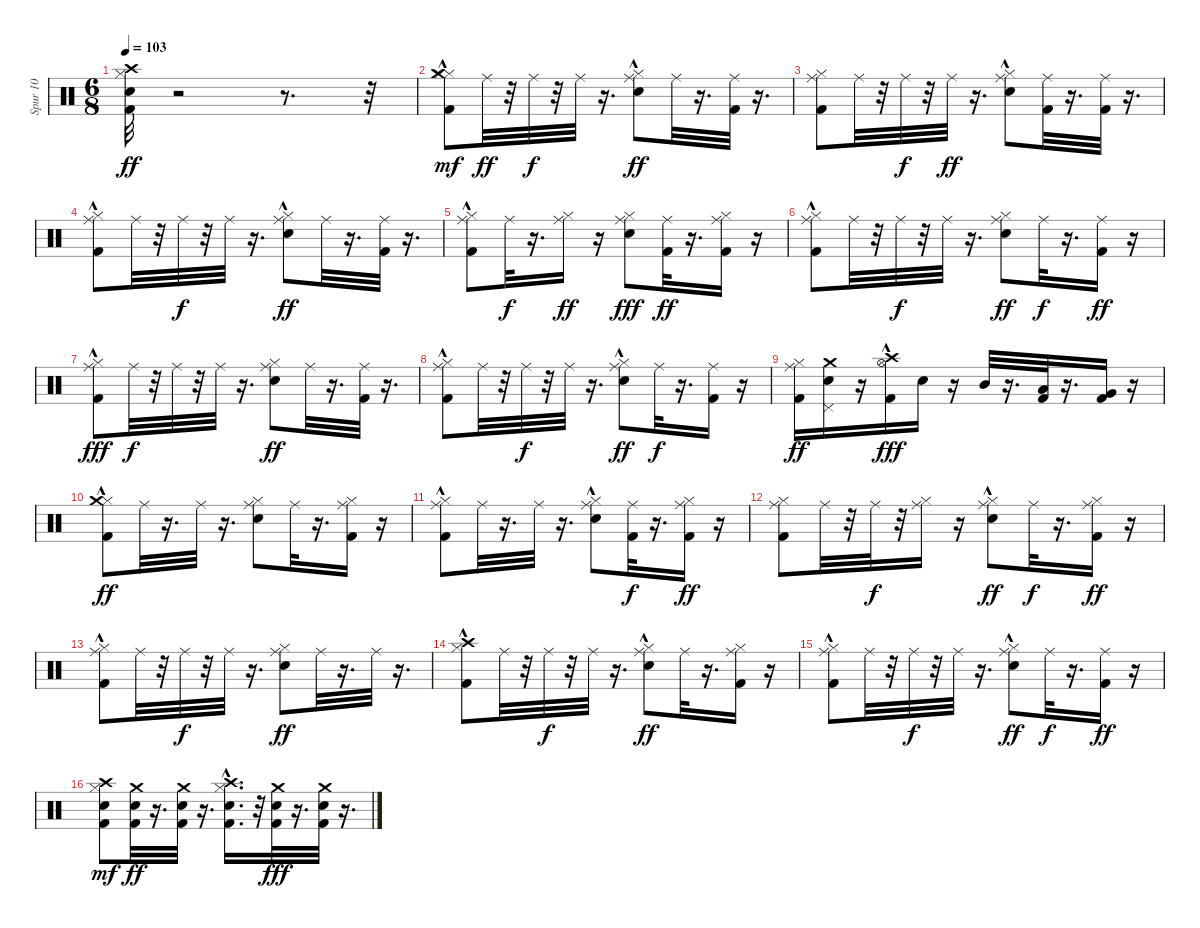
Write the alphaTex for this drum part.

\track ("Spur 10" "Spur 10") {instrument percussion}
\staff {score}
\articulation defaults
\ts (6 8)
\tempo 103
\clef neutral
\ks c
("Kick (hit) 2" "Snare (hit) 2" "Hi-Hat (closed)" "Crash high (hit)").32{dy ff} r.2 r.8{d} r.32 |
("Kick (hit) 2"{hac} "Hi-Hat (closed)" "Hi-Hat (closed)" "Crash medium (hit)").8{dy mf} "Ride (middle)".32{dy ff} r.32 "Ride (middle)".32{dy f} r.32 "Ride (middle)".32 r.16{d} ("Snare (hit) 2"{hac} "Hi-Hat (closed)" "Ride (middle)").8{dy ff} "Ride (middle)".32 r.16{d} ("Kick (hit) 2" "Ride (middle)").32 r.16{d} |
("Kick (hit) 2" "Hi-Hat (closed)" "Ride (middle)").8 "Ride (middle)".32 r.32 "Ride (middle)".32{dy f} r.32 "Ride (middle)".32{dy ff} r.16{d} ("Snare (hit) 2"{hac} "Hi-Hat (closed)" "Ride (middle)").8 ("Kick (hit) 2" "Ride (middle)").32 r.16{d} ("Kick (hit) 2" "Ride (middle)").32 r.16{d} |
("Kick (hit) 2"{hac} "Hi-Hat (closed)"{hac} "Ride (middle)").8 "Ride (middle)".32 r.32 "Ride (middle)".32{dy f} r.32 "Ride (middle)".32 r.16{d} ("Snare (hit) 2" "Hi-Hat (closed)"{hac} "Ride (middle)").8{dy ff} "Ride (middle)".32 r.16{d} ("Kick (hit) 2" "Ride (middle)").32 r.16{d} |
("Kick (hit) 2"{hac} "Hi-Hat (closed)" "Ride (middle)").8 "Ride (middle)".32{dy f} r.16{d} ("Hi-Hat (closed)" "Ride (middle)").16{dy ff} r.16 ("Snare (hit) 2" "Hi-Hat (closed)" "Ride (middle)").8{dy fff} ("Kick (hit) 2" "Ride (middle)").32{dy ff} r.16{d} ("Kick (hit) 2" "Hi-Hat (closed)" "Ride (middle)").16 r.16 |
("Kick (hit) 2"{hac} "Hi-Hat (closed)" "Ride (middle)").8 "Ride (middle)".32 r.32 "Ride (middle)".32{dy f} r.32 "Ride (middle)".32 r.16{d} ("Snare (hit) 2" "Hi-Hat (closed)" "Ride (middle)").8{dy ff} "Ride (middle)".32{dy f} r.16{d} ("Kick (hit) 2" "Ride (middle)").16{dy ff} r.16 |
("Kick (hit) 2"{hac} "Hi-Hat (closed)"{hac} "Ride (middle)").8{dy fff} "Ride (middle)".32{dy f} r.32 "Ride (middle)".32 r.32 "Ride (middle)".32 r.16{d} ("Snare (hit) 2" "Hi-Hat (closed)" "Ride (middle)").8{dy ff} "Ride (middle)".32 r.16{d} ("Kick (hit) 2" "Ride (middle)").32 r.16{d} |
("Kick (hit) 2"{hac} "Hi-Hat (closed)"{hac} "Ride (middle)").8 "Ride (middle)".32 r.32 "Ride (middle)".32{dy f} r.32 "Ride (middle)".32 r.16{d} ("Snare (hit) 2"{hac} "Hi-Hat (closed)" "Ride (middle)").8{dy ff} "Ride (middle)".32{dy f} r.16{d} ("Kick (hit) 2" "Ride (middle)").16 r.16 |
("Kick (hit) 2" "Hi-Hat (closed)" "Ride (middle)").16{dy ff} ("Snare (hit) 2" "Pedal Hi-Hat (hit)" "Crash medium (hit)").16 r.16 ("Kick (hit) 2"{hac} "Hi-Hat (open)" "Crash high (hit)").16{dy fff} "Snare (hit) 2".16 r.16 "Mid Tom (hit)".32 r.16{d} ("Kick (hit) 2" "Low Tom (hit)").32 r.16{d} ("Kick (hit) 2" "Very Low Tom (hit)").16 r.16 |
("Kick (hit) 2"{hac} "Hi-Hat (closed)" "Crash medium (hit)").8{dy ff} "Ride (middle)".32 r.16{d} "Ride (middle)".32 r.16{d} ("Snare (hit) 2" "Hi-Hat (closed)" "Ride (middle)").8 "Ride (middle)".32 r.16{d} ("Kick (hit) 2" "Hi-Hat (closed)" "Ride (middle)").16 r.16 |
("Kick (hit) 2"{hac} "Hi-Hat (closed)" "Ride (middle)").8 "Ride (middle)".32 r.16{d} "Ride (middle)".32 r.16{d} ("Snare (hit) 2"{hac} "Hi-Hat (closed)" "Ride (middle)").8 ("Kick (hit) 2" "Ride (middle)").32{dy f} r.16{d} ("Kick (hit) 2" "Hi-Hat (closed)" "Ride (middle)").16{dy ff} r.16 |
("Kick (hit) 2" "Hi-Hat (closed)" "Ride (middle)").8 "Ride (middle)".32 r.32 "Ride (middle)".32{dy f} r.32 ("Hi-Hat (closed)" "Ride (middle)").16 r.16 ("Snare (hit) 2"{hac} "Hi-Hat (closed)" "Ride (middle)").8{dy ff} "Ride (middle)".32{dy f} r.16{d} ("Kick (hit) 2" "Hi-Hat (closed)" "Ride (middle)").16{dy ff} r.16 |
("Kick (hit) 2"{hac} "Hi-Hat (closed)" "Ride (middle)").8 "Ride (middle)".32 r.32 "Ride (middle)".32{dy f} r.32 "Ride (middle)".32 r.16{d} ("Snare (hit) 2" "Hi-Hat (closed)" "Ride (middle)").8{dy ff} "Ride (middle)".32 r.16{d} "Ride (middle)".32 r.16{d} |
("Kick (hit) 2"{hac} "Hi-Hat (closed)"{hac} "Crash high (hit)").8 "Ride (middle)".32 r.32 "Ride (middle)".32{dy f} r.32 "Ride (middle)".32 r.16{d} ("Snare (hit) 2" "Hi-Hat (closed)"{hac} "Ride (middle)").8{dy ff} "Ride (middle)".32 r.16{d} ("Kick (hit) 2" "Hi-Hat (closed)" "Ride (middle)").16 r.16 |
("Kick (hit) 2"{hac} "Hi-Hat (closed)" "Ride (middle)").8 "Ride (middle)".32 r.32 "Ride (middle)".32{dy f} r.32 "Ride (middle)".32 r.16{d} ("Snare (hit) 2" "Hi-Hat (closed)"{hac} "Ride (middle)").8{dy ff} "Ride (middle)".32{dy f} r.16{d} ("Kick (hit) 2" "Ride (middle)").16{dy ff} r.16 |
("Kick (hit) 2" "Snare (hit) 2" "Hi-Hat (closed)" "Crash high (hit)").8{dy mf} ("Kick (hit) 2" "Snare (hit) 2" "Crash medium (hit)").32{dy ff} r.16{d} ("Kick (hit) 2" "Snare (hit) 2" "Crash medium (hit)").32 r.16{d} ("Kick (hit) 2" "Snare (hit) 2" "Hi-Hat (closed)"{hac} "Crash high (hit)").16{d} r.32 ("Kick (hit) 2" "Snare (hit) 2" "Crash medium (hit)").32{dy fff} r.16{d} ("Kick (hit) 2" "Snare (hit) 2" "Crash medium (hit)").32 r.16{d}
